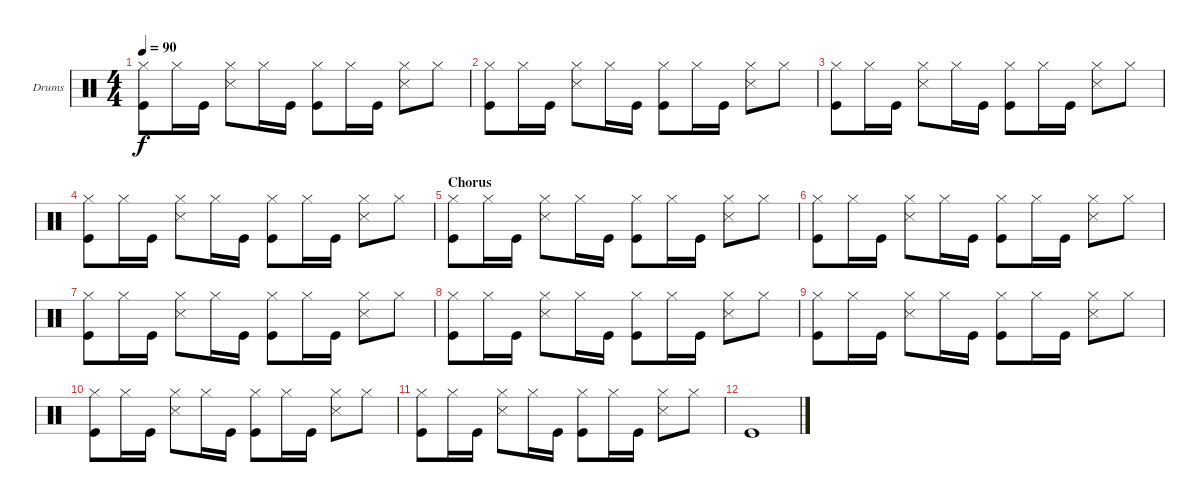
\defaultSystemsLayout 4
\bracketExtendMode groupsimilarinstruments
\firstSystemTrackNameOrientation horizontal
\otherSystemsTrackNameOrientation horizontal
\track ("Drums" "Drums") {instrument percussion}
\staff {score}
\articulation defaults
\ts (4 4)
\tempo 90
\clef neutral
\scale
0.333333
\ks c
("Hi-Hat (closed)" "Kick (hit)").8{dy f} "Hi-Hat (closed)".16 "Kick (hit)".16 ("Hi-Hat (closed)" "Snare (side stick) 3").8 "Hi-Hat (closed)".16 "Kick (hit)".16 ("Hi-Hat (closed)" "Kick (hit)").8 "Hi-Hat (closed)".16 "Kick (hit)".16 ("Snare (side stick) 3" "Hi-Hat (closed)").8 "Hi-Hat (closed)".8 |
\scale
0.333333 ("Hi-Hat (closed)" "Kick (hit)").8 "Hi-Hat (closed)".16 "Kick (hit)".16 ("Hi-Hat (closed)" "Snare (side stick) 3").8 "Hi-Hat (closed)".16 "Kick (hit)".16 ("Hi-Hat (closed)" "Kick (hit)").8 "Hi-Hat (closed)".16 "Kick (hit)".16 ("Snare (side stick) 3" "Hi-Hat (closed)").8 "Hi-Hat (closed)".8 |
\scale
0.333333 ("Hi-Hat (closed)" "Kick (hit)").8 "Hi-Hat (closed)".16 "Kick (hit)".16 ("Hi-Hat (closed)" "Snare (side stick) 3").8 "Hi-Hat (closed)".16 "Kick (hit)".16 ("Hi-Hat (closed)" "Kick (hit)").8 "Hi-Hat (closed)".16 "Kick (hit)".16 ("Snare (side stick) 3" "Hi-Hat (closed)").8 "Hi-Hat (closed)".8 |
\scale
0.333333 ("Hi-Hat (closed)" "Kick (hit)").8 "Hi-Hat (closed)".16 "Kick (hit)".16 ("Hi-Hat (closed)" "Snare (side stick) 3").8 "Hi-Hat (closed)".16 "Kick (hit)".16 ("Hi-Hat (closed)" "Kick (hit)").8 "Hi-Hat (closed)".16 "Kick (hit)".16 ("Snare (side stick) 3" "Hi-Hat (closed)").8 "Hi-Hat (closed)".8 |
\section ("" "Chorus")
\scale
0.333333 ("Hi-Hat (closed)" "Kick (hit)").8 "Hi-Hat (closed)".16 "Kick (hit)".16 ("Hi-Hat (closed)" "Snare (side stick) 3").8 "Hi-Hat (closed)".16 "Kick (hit)".16 ("Hi-Hat (closed)" "Kick (hit)").8 "Hi-Hat (closed)".16 "Kick (hit)".16 ("Snare (side stick) 3" "Hi-Hat (closed)").8 "Hi-Hat (closed)".8 |
\scale
0.333333 ("Hi-Hat (closed)" "Kick (hit)").8 "Hi-Hat (closed)".16 "Kick (hit)".16 ("Hi-Hat (closed)" "Snare (side stick) 3").8 "Hi-Hat (closed)".16 "Kick (hit)".16 ("Hi-Hat (closed)" "Kick (hit)").8 "Hi-Hat (closed)".16 "Kick (hit)".16 ("Snare (side stick) 3" "Hi-Hat (closed)").8 "Hi-Hat (closed)".8 |
\scale
0.333333 ("Hi-Hat (closed)" "Kick (hit)").8 "Hi-Hat (closed)".16 "Kick (hit)".16 ("Hi-Hat (closed)" "Snare (side stick) 3").8 "Hi-Hat (closed)".16 "Kick (hit)".16 ("Hi-Hat (closed)" "Kick (hit)").8 "Hi-Hat (closed)".16 "Kick (hit)".16 ("Snare (side stick) 3" "Hi-Hat (closed)").8 "Hi-Hat (closed)".8 |
\scale
0.333333 ("Hi-Hat (closed)" "Kick (hit)").8 "Hi-Hat (closed)".16 "Kick (hit)".16 ("Hi-Hat (closed)" "Snare (side stick) 3").8 "Hi-Hat (closed)".16 "Kick (hit)".16 ("Hi-Hat (closed)" "Kick (hit)").8 "Hi-Hat (closed)".16 "Kick (hit)".16 ("Snare (side stick) 3" "Hi-Hat (closed)").8 "Hi-Hat (closed)".8 |
\scale
0.333333 ("Hi-Hat (closed)" "Kick (hit)").8 "Hi-Hat (closed)".16 "Kick (hit)".16 ("Hi-Hat (closed)" "Snare (side stick) 3").8 "Hi-Hat (closed)".16 "Kick (hit)".16 ("Hi-Hat (closed)" "Kick (hit)").8 "Hi-Hat (closed)".16 "Kick (hit)".16 ("Snare (side stick) 3" "Hi-Hat (closed)").8 "Hi-Hat (closed)".8 |
\scale
0.333333 ("Hi-Hat (closed)" "Kick (hit)").8 "Hi-Hat (closed)".16 "Kick (hit)".16 ("Hi-Hat (closed)" "Snare (side stick) 3").8 "Hi-Hat (closed)".16 "Kick (hit)".16 ("Hi-Hat (closed)" "Kick (hit)").8 "Hi-Hat (closed)".16 "Kick (hit)".16 ("Snare (side stick) 3" "Hi-Hat (closed)").8 "Hi-Hat (closed)".8 |
\scale
0.333333 ("Hi-Hat (closed)" "Kick (hit)").8 "Hi-Hat (closed)".16 "Kick (hit)".16 ("Hi-Hat (closed)" "Snare (side stick) 3").8 "Hi-Hat (closed)".16 "Kick (hit)".16 ("Hi-Hat (closed)" "Kick (hit)").8 "Hi-Hat (closed)".16 "Kick (hit)".16 ("Snare (side stick) 3" "Hi-Hat (closed)").8 "Hi-Hat (closed)".8 |
\scale
0.333333 "Kick (hit)".1 |
\scale
0.333333 |
\scale
0.333333 |
\scale
0.333333 |
\scale
0.333333
